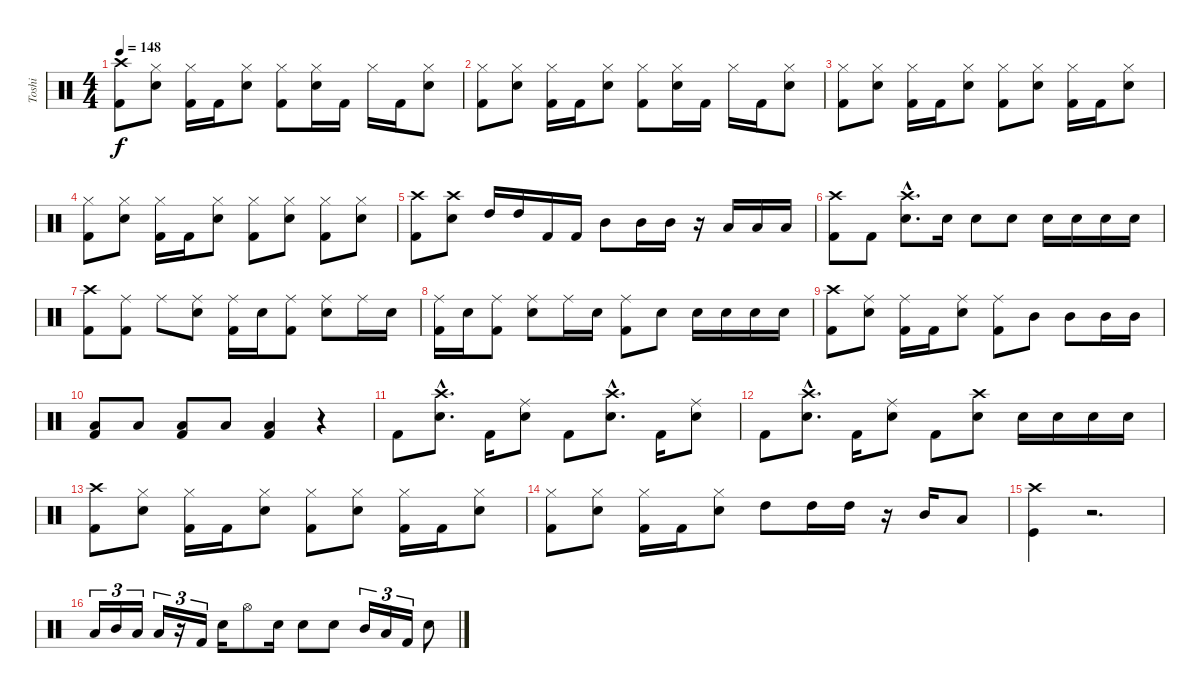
\track ("Toshi" "Toshi") {instrument percussion}
\staff {score}
\articulation defaults
\ts (4 4)
\tempo 148
\clef neutral
\ks c
("Crash high (hit)" "Kick (hit) 2").8{dy f} ("Hi-Hat (closed)" "Snare (hit) 2").8 ("Hi-Hat (closed)" "Kick (hit) 2").16 "Kick (hit) 2".16 ("Hi-Hat (closed)" "Snare (hit) 2").8 ("Hi-Hat (closed)" "Kick (hit) 2").8 ("Hi-Hat (closed)" "Snare (hit) 2").16 "Kick (hit) 2".16 "Hi-Hat (closed)".16 "Kick (hit) 2".16 ("Hi-Hat (closed)" "Snare (hit) 2").8 |
("Hi-Hat (closed)" "Kick (hit) 2").8 ("Hi-Hat (closed)" "Snare (hit) 2").8 ("Hi-Hat (closed)" "Kick (hit) 2").16 "Kick (hit) 2".16 ("Hi-Hat (closed)" "Snare (hit) 2").8 ("Hi-Hat (closed)" "Kick (hit) 2").8 ("Hi-Hat (closed)" "Snare (hit) 2").16 "Kick (hit) 2".16 "Hi-Hat (closed)".16 "Kick (hit) 2".16 ("Hi-Hat (closed)" "Snare (hit) 2").8 |
("Hi-Hat (closed)" "Kick (hit) 2").8 ("Hi-Hat (closed)" "Snare (hit) 2").8 ("Hi-Hat (closed)" "Kick (hit) 2").16 "Kick (hit) 2".16 ("Hi-Hat (closed)" "Snare (hit) 2").8 ("Hi-Hat (closed)" "Kick (hit) 2").8 ("Hi-Hat (closed)" "Snare (hit) 2").8 ("Hi-Hat (closed)" "Kick (hit) 2").16 "Kick (hit) 2".16 ("Hi-Hat (closed)" "Snare (hit) 2").8 |
("Hi-Hat (closed)" "Kick (hit) 2").8 ("Hi-Hat (closed)" "Snare (hit) 2").8 ("Hi-Hat (closed)" "Kick (hit) 2").16 "Kick (hit) 2".16 ("Hi-Hat (closed)" "Snare (hit) 2").8 ("Hi-Hat (closed)" "Kick (hit) 2").8 ("Hi-Hat (closed)" "Snare (hit) 2").8 ("Hi-Hat (closed)" "Kick (hit) 2").8 ("Hi-Hat (closed)" "Snare (hit) 2").8 |
("Crash high (hit)" "Kick (hit) 2").8 ("Crash high (hit)" "Snare (hit) 2").8 "High Tom (hit)".16 "High Tom (hit)".16 "Kick (hit) 2".16 "Kick (hit) 2".16 "Mid Tom (hit)".8 "Mid Tom (hit)".16 "Mid Tom (hit)".16 r.16 "Low Tom (hit)".16 "Low Tom (hit)".16 "Low Tom (hit)".16 |
("Crash high (hit)" "Kick (hit) 2").8 "Kick (hit) 2".8 ("Crash high (hit)"{hac} "Snare (hit) 2"{hac}).8{d} "Snare (hit) 2".16 "Snare (hit) 2".8 "Snare (hit) 2".8 "Snare (hit) 2".16 "Snare (hit) 2".16 "Snare (hit) 2".16 "Snare (hit) 2".16 |
("Crash high (hit)" "Kick (hit) 2").8 ("Ride (middle)" "Kick (hit) 2").8 "Ride (middle)".8 ("Ride (middle)" "Snare (hit) 2").8 ("Ride (middle)" "Kick (hit) 2").16 "Snare (hit) 2".16 ("Ride (middle)" "Kick (hit) 2").8 ("Ride (middle)" "Snare (hit) 2").8 "Ride (middle)".16 "Snare (hit) 2".16 |
("Ride (middle)" "Kick (hit) 2").16 "Snare (hit) 2".16 ("Ride (middle)" "Kick (hit) 2").8 ("Ride (middle)" "Snare (hit) 2").8 "Ride (middle)".16 "Snare (hit) 2".16 ("Ride (middle)" "Kick (hit) 2").8 "Snare (hit) 2".8 "Snare (hit) 2".16 "Snare (hit) 2".16 "Snare (hit) 2".16 "Snare (hit) 2".16 |
("Crash high (hit)" "Kick (hit) 2").8 ("Ride (middle)" "Snare (hit) 2").8 ("Ride (middle)" "Kick (hit) 2").16 "Kick (hit) 2".16 ("Ride (middle)" "Snare (hit) 2").8 ("Ride (middle)" "Kick (hit) 2").8 "Mid Tom (hit)".8 "Mid Tom (hit)".8 "Mid Tom (hit)".16 "Mid Tom (hit)".16 |
("Low Tom (hit)" "Kick (hit) 2").8 "Low Tom (hit)".8 ("Low Tom (hit)" "Kick (hit) 2").8 "Low Tom (hit)".8 ("Low Tom (hit)" "Kick (hit) 2").4 r.4 |
"Kick (hit) 2".8 ("Crash high (hit)"{hac} "Snare (hit) 2"{hac}).8{d} "Kick (hit) 2".16 ("Ride (middle)" "Snare (hit) 2").8 "Kick (hit) 2".8 ("Crash high (hit)"{hac} "Snare (hit) 2"{hac}).8{d} "Kick (hit) 2".16 ("Ride (middle)" "Snare (hit) 2").8 |
"Kick (hit) 2".8 ("Crash high (hit)"{hac} "Snare (hit) 2"{hac}).8{d} "Kick (hit) 2".16 ("Ride (middle)" "Snare (hit) 2").8 "Kick (hit) 2".8 ("Crash high (hit)" "Snare (hit) 2").8 "Snare (hit) 2".16 "Snare (hit) 2".16 "Snare (hit) 2".16 "Snare (hit) 2".16 |
("Crash high (hit)" "Kick (hit) 2").8 ("Hi-Hat (closed)" "Snare (hit) 2").8 ("Hi-Hat (closed)" "Kick (hit) 2").16 "Kick (hit) 2".16 ("Hi-Hat (closed)" "Snare (hit) 2").8 ("Hi-Hat (closed)" "Kick (hit) 2").8 ("Hi-Hat (closed)" "Snare (hit) 2").8 ("Hi-Hat (closed)" "Kick (hit) 2").16 "Kick (hit) 2".16 ("Hi-Hat (closed)" "Snare (hit) 2").8 |
("Hi-Hat (closed)" "Kick (hit) 2").8 ("Hi-Hat (closed)" "Snare (hit) 2").8 ("Hi-Hat (closed)" "Kick (hit) 2").16 "Kick (hit) 2".16 ("Hi-Hat (closed)" "Snare (hit) 2").8 "High Tom (hit)".8 "High Tom (hit)".16 "High Tom (hit)".16 r.16 "Mid Tom (hit)".16 "Low Tom (hit)".8 |
("Crash high (hit)" "Kick (hit)").4 r.2{d} |
"Low Tom (hit)".16{tu (3 2)} "Mid Tom (hit)".16{tu (3 2)} "Low Tom (hit)".16{tu (3 2)} "Low Floor Tom (hit)".16{tu (3 2)} r.16{tu (3 2)} "Kick (hit) 2".16{tu (3 2)} "Snare (hit) 2".16 "Hi-Hat (open)".8 "Snare (hit) 2".16 "Snare (hit) 2".8 "Snare (hit) 2".8 "Mid Tom (hit)".16{tu (3 2)} "Low Tom (hit)".16{tu (3 2)} "Kick (hit) 2".16{tu (3 2)} "Snare (hit) 2".8
